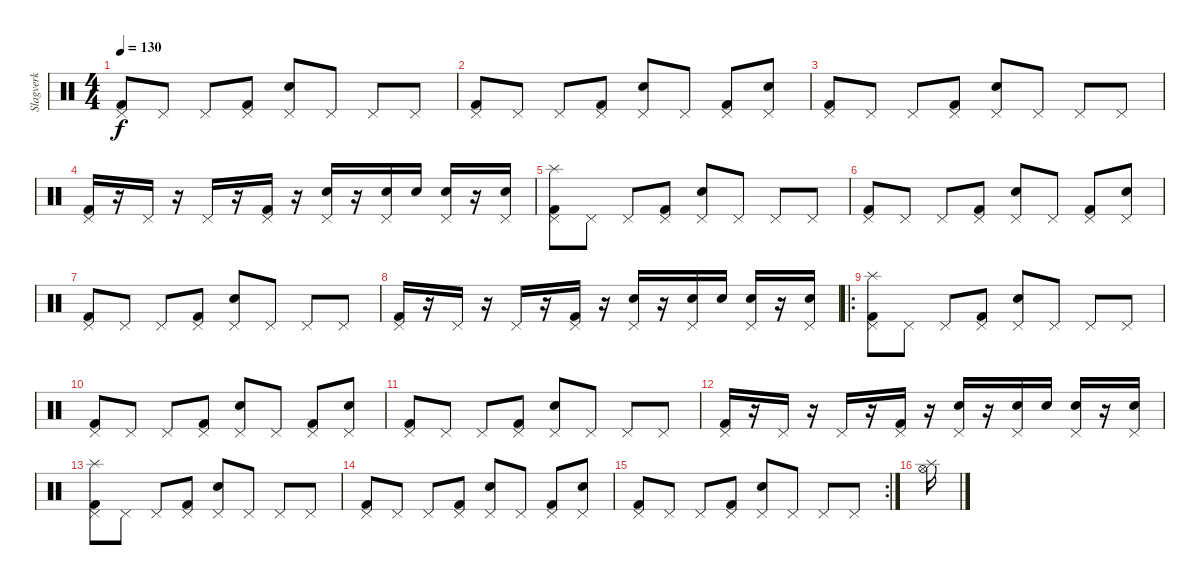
\track ("Slagverk" "Slagverk") {instrument percussion}
\staff {score}
\articulation defaults
\ts (4 4)
\tempo 130
\clef neutral
\ks c
("Pedal Hi-Hat (hit)" "Kick (hit) 2").8{dy f} "Pedal Hi-Hat (hit)".8 "Pedal Hi-Hat (hit)".8 ("Pedal Hi-Hat (hit)" "Kick (hit) 2").8 ("Pedal Hi-Hat (hit)" "Electric Snare (hit)").8 "Pedal Hi-Hat (hit)".8 "Pedal Hi-Hat (hit)".8 "Pedal Hi-Hat (hit)".8 |
("Pedal Hi-Hat (hit)" "Kick (hit) 2").8 "Pedal Hi-Hat (hit)".8 "Pedal Hi-Hat (hit)".8 ("Pedal Hi-Hat (hit)" "Kick (hit) 2").8 ("Pedal Hi-Hat (hit)" "Electric Snare (hit)").8 "Pedal Hi-Hat (hit)".8 ("Pedal Hi-Hat (hit)" "Kick (hit) 2").8 ("Pedal Hi-Hat (hit)" "Electric Snare (hit)").8 |
("Pedal Hi-Hat (hit)" "Kick (hit) 2").8 "Pedal Hi-Hat (hit)".8 "Pedal Hi-Hat (hit)".8 ("Pedal Hi-Hat (hit)" "Kick (hit) 2").8 ("Pedal Hi-Hat (hit)" "Electric Snare (hit)").8 "Pedal Hi-Hat (hit)".8 "Pedal Hi-Hat (hit)".8 "Pedal Hi-Hat (hit)".8 |
("Pedal Hi-Hat (hit)" "Kick (hit) 2").16 r.16 "Pedal Hi-Hat (hit)".16 r.16 "Pedal Hi-Hat (hit)".16 r.16 ("Pedal Hi-Hat (hit)" "Kick (hit) 2").16 r.16 ("Pedal Hi-Hat (hit)" "Electric Snare (hit)").16 r.16 ("Pedal Hi-Hat (hit)" "Electric Snare (hit)").16 "Electric Snare (hit)".16 ("Pedal Hi-Hat (hit)" "Electric Snare (hit)").16 r.16 ("Pedal Hi-Hat (hit)" "Electric Snare (hit)").16 |
("Pedal Hi-Hat (hit)" "Splash (hit)" "Kick (hit) 2").8 "Pedal Hi-Hat (hit)".8 "Pedal Hi-Hat (hit)".8 ("Pedal Hi-Hat (hit)" "Kick (hit) 2").8 ("Pedal Hi-Hat (hit)" "Electric Snare (hit)").8 "Pedal Hi-Hat (hit)".8 "Pedal Hi-Hat (hit)".8 "Pedal Hi-Hat (hit)".8 |
("Pedal Hi-Hat (hit)" "Kick (hit) 2").8 "Pedal Hi-Hat (hit)".8 "Pedal Hi-Hat (hit)".8 ("Pedal Hi-Hat (hit)" "Kick (hit) 2").8 ("Pedal Hi-Hat (hit)" "Electric Snare (hit)").8 "Pedal Hi-Hat (hit)".8 ("Pedal Hi-Hat (hit)" "Kick (hit) 2").8 ("Pedal Hi-Hat (hit)" "Electric Snare (hit)").8 |
("Pedal Hi-Hat (hit)" "Kick (hit) 2").8 "Pedal Hi-Hat (hit)".8 "Pedal Hi-Hat (hit)".8 ("Pedal Hi-Hat (hit)" "Kick (hit) 2").8 ("Pedal Hi-Hat (hit)" "Electric Snare (hit)").8 "Pedal Hi-Hat (hit)".8 "Pedal Hi-Hat (hit)".8 "Pedal Hi-Hat (hit)".8 |
("Pedal Hi-Hat (hit)" "Kick (hit) 2").16 r.16 "Pedal Hi-Hat (hit)".16 r.16 "Pedal Hi-Hat (hit)".16 r.16 ("Pedal Hi-Hat (hit)" "Kick (hit) 2").16 r.16 ("Pedal Hi-Hat (hit)" "Electric Snare (hit)").16 r.16 ("Pedal Hi-Hat (hit)" "Electric Snare (hit)").16 "Electric Snare (hit)".16 ("Pedal Hi-Hat (hit)" "Electric Snare (hit)").16 r.16 ("Pedal Hi-Hat (hit)" "Electric Snare (hit)").16 |
\ro
("Pedal Hi-Hat (hit)" "Kick (hit) 2" "Splash (hit)").8 "Pedal Hi-Hat (hit)".8 "Pedal Hi-Hat (hit)".8 ("Pedal Hi-Hat (hit)" "Kick (hit) 2").8 ("Pedal Hi-Hat (hit)" "Electric Snare (hit)").8 "Pedal Hi-Hat (hit)".8 "Pedal Hi-Hat (hit)".8 "Pedal Hi-Hat (hit)".8 |
("Pedal Hi-Hat (hit)" "Kick (hit) 2").8 "Pedal Hi-Hat (hit)".8 "Pedal Hi-Hat (hit)".8 ("Pedal Hi-Hat (hit)" "Kick (hit) 2").8 ("Pedal Hi-Hat (hit)" "Electric Snare (hit)").8 "Pedal Hi-Hat (hit)".8 ("Pedal Hi-Hat (hit)" "Kick (hit) 2").8 ("Pedal Hi-Hat (hit)" "Electric Snare (hit)").8 |
("Pedal Hi-Hat (hit)" "Kick (hit) 2").8 "Pedal Hi-Hat (hit)".8 "Pedal Hi-Hat (hit)".8 ("Pedal Hi-Hat (hit)" "Kick (hit) 2").8 ("Pedal Hi-Hat (hit)" "Electric Snare (hit)").8 "Pedal Hi-Hat (hit)".8 "Pedal Hi-Hat (hit)".8 "Pedal Hi-Hat (hit)".8 |
("Pedal Hi-Hat (hit)" "Kick (hit) 2").16 r.16 "Pedal Hi-Hat (hit)".16 r.16 "Pedal Hi-Hat (hit)".16 r.16 ("Pedal Hi-Hat (hit)" "Kick (hit) 2").16 r.16 ("Pedal Hi-Hat (hit)" "Electric Snare (hit)").16 r.16 ("Pedal Hi-Hat (hit)" "Electric Snare (hit)").16 "Electric Snare (hit)".16 ("Pedal Hi-Hat (hit)" "Electric Snare (hit)").16 r.16 ("Pedal Hi-Hat (hit)" "Electric Snare (hit)").16 |
("Pedal Hi-Hat (hit)" "Splash (hit)" "Kick (hit) 2").8 "Pedal Hi-Hat (hit)".8 "Pedal Hi-Hat (hit)".8 ("Pedal Hi-Hat (hit)" "Kick (hit) 2").8 ("Pedal Hi-Hat (hit)" "Electric Snare (hit)").8 "Pedal Hi-Hat (hit)".8 "Pedal Hi-Hat (hit)".8 "Pedal Hi-Hat (hit)".8 |
("Pedal Hi-Hat (hit)" "Kick (hit) 2").8 "Pedal Hi-Hat (hit)".8 "Pedal Hi-Hat (hit)".8 ("Pedal Hi-Hat (hit)" "Kick (hit) 2").8 ("Pedal Hi-Hat (hit)" "Electric Snare (hit)").8 "Pedal Hi-Hat (hit)".8 ("Pedal Hi-Hat (hit)" "Kick (hit) 2").8 ("Pedal Hi-Hat (hit)" "Electric Snare (hit)").8 |
\rc 2
("Pedal Hi-Hat (hit)" "Kick (hit) 2").8 "Pedal Hi-Hat (hit)".8 "Pedal Hi-Hat (hit)".8 ("Pedal Hi-Hat (hit)" "Kick (hit) 2").8 ("Pedal Hi-Hat (hit)" "Electric Snare (hit)").8 "Pedal Hi-Hat (hit)".8 "Pedal Hi-Hat (hit)".8 "Pedal Hi-Hat (hit)".8 |
("Hi-Hat (open)" "Splash (hit)").16
